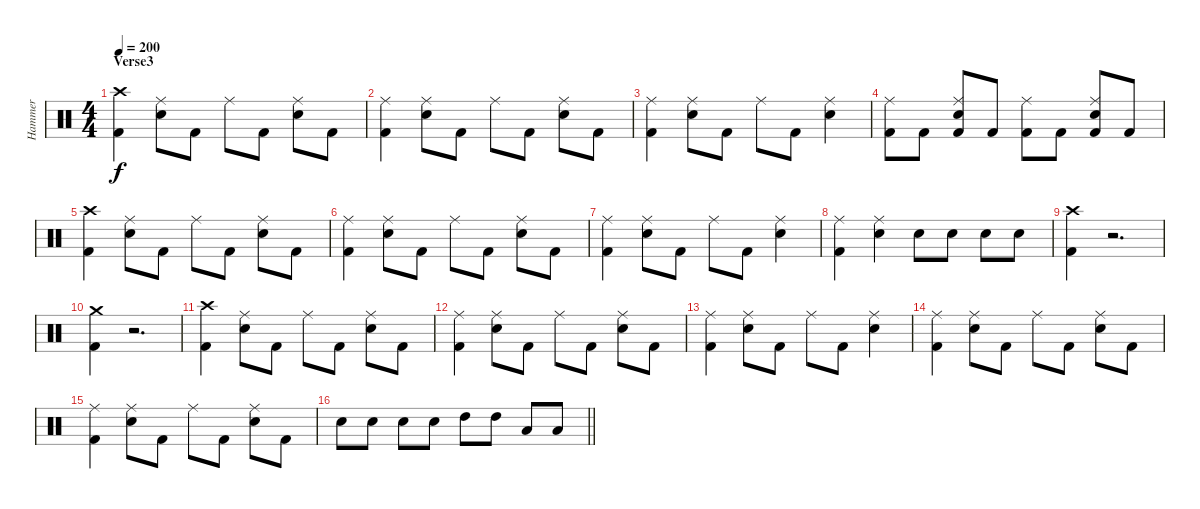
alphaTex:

\track ("Hammer" "Hammer") {instrument percussion}
\staff {score}
\articulation defaults
\ts (4 4)
\section ("" "Verse3")
\tempo 200
\clef neutral
\ks c
("Kick (hit) 2" "Crash high (hit)").4{dy f} ("Ride (middle)" "Snare (hit) 2").8 "Kick (hit) 2".8 "Ride (middle)".8 "Kick (hit) 2".8 ("Ride (middle)" "Snare (hit) 2").8 "Kick (hit) 2".8 |
("Kick (hit) 2" "Ride (middle)").4 ("Ride (middle)" "Snare (hit) 2").8 "Kick (hit) 2".8 "Ride (middle)".8 "Kick (hit) 2".8 ("Ride (middle)" "Snare (hit) 2").8 "Kick (hit) 2".8 |
("Kick (hit) 2" "Ride (middle)").4 ("Snare (hit) 2" "Ride (middle)").8 "Kick (hit) 2".8 "Ride (middle)".8 "Kick (hit) 2".8 ("Ride (middle)" "Snare (hit) 2").4 |
("Kick (hit) 2" "Ride (middle)").8 "Kick (hit) 2".8 ("Ride (middle)" "Kick (hit) 2" "Snare (hit) 2").8 "Kick (hit) 2".8 ("Kick (hit) 2" "Ride (middle)").8 "Kick (hit) 2".8 ("Kick (hit) 2" "Snare (hit) 2" "Ride (middle)").8 "Kick (hit) 2".8 |
("Kick (hit) 2" "Crash high (hit)").4 ("Ride (middle)" "Snare (hit) 2").8 "Kick (hit) 2".8 "Ride (middle)".8 "Kick (hit) 2".8 ("Ride (middle)" "Snare (hit) 2").8 "Kick (hit) 2".8 |
("Kick (hit) 2" "Ride (middle)").4 ("Ride (middle)" "Snare (hit) 2").8 "Kick (hit) 2".8 "Ride (middle)".8 "Kick (hit) 2".8 ("Ride (middle)" "Snare (hit) 2").8 "Kick (hit) 2".8 |
("Kick (hit) 2" "Ride (middle)").4 ("Snare (hit) 2" "Ride (middle)").8 "Kick (hit) 2".8 "Ride (middle)".8 "Kick (hit) 2".8 ("Ride (middle)" "Snare (hit) 2").4 |
("Kick (hit) 2" "Ride (middle)").4 ("Snare (hit) 2" "Ride (middle)").4 "Snare (hit) 2".8 "Snare (hit) 2".8 "Snare (hit) 2".8 "Snare (hit) 2".8 |
("Crash high (hit)" "Kick (hit) 2").4 r.2{d} |
("Crash medium (hit)" "Kick (hit) 2").4 r.2{d} |
("Kick (hit) 2" "Crash high (hit)").4 ("Ride (middle)" "Snare (hit) 2").8 "Kick (hit) 2".8 "Ride (middle)".8 "Kick (hit) 2".8 ("Ride (middle)" "Snare (hit) 2").8 "Kick (hit) 2".8 |
("Kick (hit) 2" "Ride (middle)").4 ("Ride (middle)" "Snare (hit) 2").8 "Kick (hit) 2".8 "Ride (middle)".8 "Kick (hit) 2".8 ("Ride (middle)" "Snare (hit) 2").8 "Kick (hit) 2".8 |
("Kick (hit) 2" "Ride (middle)").4 ("Snare (hit) 2" "Ride (middle)").8 "Kick (hit) 2".8 "Ride (middle)".8 "Kick (hit) 2".8 ("Ride (middle)" "Snare (hit) 2").4 |
("Kick (hit) 2" "Ride (middle)").4 ("Ride (middle)" "Snare (hit) 2").8 "Kick (hit) 2".8 "Ride (middle)".8 "Kick (hit) 2".8 ("Ride (middle)" "Snare (hit) 2").8 "Kick (hit) 2".8 |
("Kick (hit) 2" "Ride (middle)").4 ("Ride (middle)" "Snare (hit) 2").8 "Kick (hit) 2".8 "Ride (middle)".8 "Kick (hit) 2".8 ("Ride (middle)" "Snare (hit) 2").8 "Kick (hit) 2".8 |
\barLineRight lightlight "Snare (hit) 2".8 "Snare (hit) 2".8 "Snare (hit) 2".8 "Snare (hit) 2".8 "High Tom (hit)".8 "High Tom (hit)".8 "Low Tom (hit)".8 "Low Tom (hit)".8
